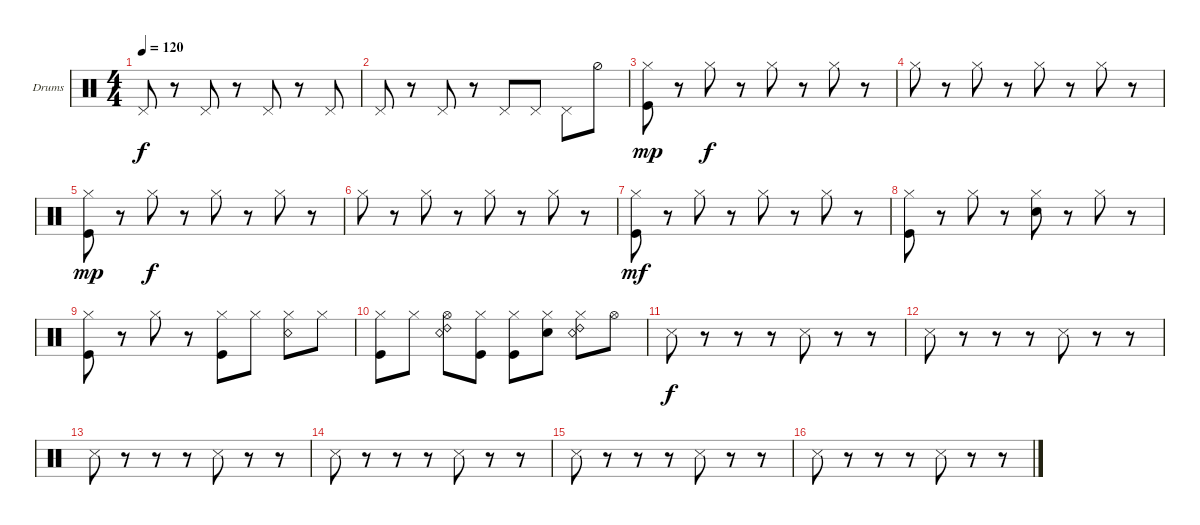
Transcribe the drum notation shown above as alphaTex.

\defaultSystemsLayout 4
\bracketExtendMode groupsimilarinstruments
\firstSystemTrackNameOrientation horizontal
\otherSystemsTrackNameOrientation horizontal
\track ("Drumkit" "Drums") {instrument percussion}
\staff {score}
\articulation defaults
\ts (4 4)
\tempo 120
\clef neutral
\ks c "Pedal Hi-Hat (hit)".8{dy f}
r.8 "Pedal Hi-Hat (hit)".8 r.8 "Pedal Hi-Hat (hit)".8 r.8 "Pedal Hi-Hat (hit)".8 |
"Pedal Hi-Hat (hit)".8 r.8 "Pedal Hi-Hat (hit)".8 r.8 "Pedal Hi-Hat (hit)".8 "Pedal Hi-Hat (hit)".8 "Pedal Hi-Hat (hit)".8 "Hi-Hat (half)".8 |
("Hi-Hat (closed)" "Kick (hit)").8{dy mp} r.8 "Hi-Hat (closed)".8{dy f} r.8 "Hi-Hat (closed)".8 r.8 "Hi-Hat (closed)".8 r.8 |
"Hi-Hat (closed)".8 r.8 "Hi-Hat (closed)".8 r.8 "Hi-Hat (closed)".8 r.8 "Hi-Hat (closed)".8 r.8 |
("Hi-Hat (closed)" "Kick (hit)").8{dy mp} r.8 "Hi-Hat (closed)".8{dy f} r.8 "Hi-Hat (closed)".8 r.8 "Hi-Hat (closed)".8 r.8 |
"Hi-Hat (closed)".8 r.8 "Hi-Hat (closed)".8 r.8 "Hi-Hat (closed)".8 r.8 "Hi-Hat (closed)".8 r.8 |
("Hi-Hat (closed)" "Kick (hit)").8{dy mf} r.8 "Hi-Hat (closed)".8 r.8 "Hi-Hat (closed)".8 r.8 "Hi-Hat (closed)".8 r.8 |
("Hi-Hat (closed)" "Kick (hit)").8 r.8 "Hi-Hat (closed)".8 r.8 ("Hi-Hat (closed)" "Snare (hit) 2").8 r.8 "Hi-Hat (closed)".8 r.8 |
("Hi-Hat (closed)" "Kick (hit)").8 r.8 "Hi-Hat (closed)".8 r.8 ("Hi-Hat (closed)" "Kick (hit)").8 "Hi-Hat (closed)".8 ("Hi-Hat (closed)" "Snare (rim shot)").8 "Hi-Hat (closed)".8 |
("Hi-Hat (closed)" "Kick (hit)").8 "Hi-Hat (closed)".8 ("Hi-Hat (open)" "Snare (rim shot)" "Ride (bell) 2").8 ("Hi-Hat (closed)" "Kick (hit)").8 ("Hi-Hat (closed)" "Kick (hit)").8 ("Hi-Hat (closed)" "Snare (hit) 2").8 ("Hi-Hat (closed)" "Snare (rim shot)" "Ride (bell) 2").8 "Hi-Hat (open)".8 |
"Snare (side stick) 3".8{dy f} r.8 r.8 r.8 "Snare (side stick) 3".8 r.8 r.8 |
"Snare (side stick) 3".8 r.8 r.8 r.8 "Snare (side stick) 3".8 r.8 r.8 |
"Snare (side stick) 3".8 r.8 r.8 r.8 "Snare (side stick) 3".8 r.8 r.8 |
"Snare (side stick) 3".8 r.8 r.8 r.8 "Snare (side stick) 3".8 r.8 r.8 |
"Snare (side stick) 3".8 r.8 r.8 r.8 "Snare (side stick) 3".8 r.8 r.8 |
"Snare (side stick) 3".8 r.8 r.8 r.8 "Snare (side stick) 3".8 r.8 r.8
